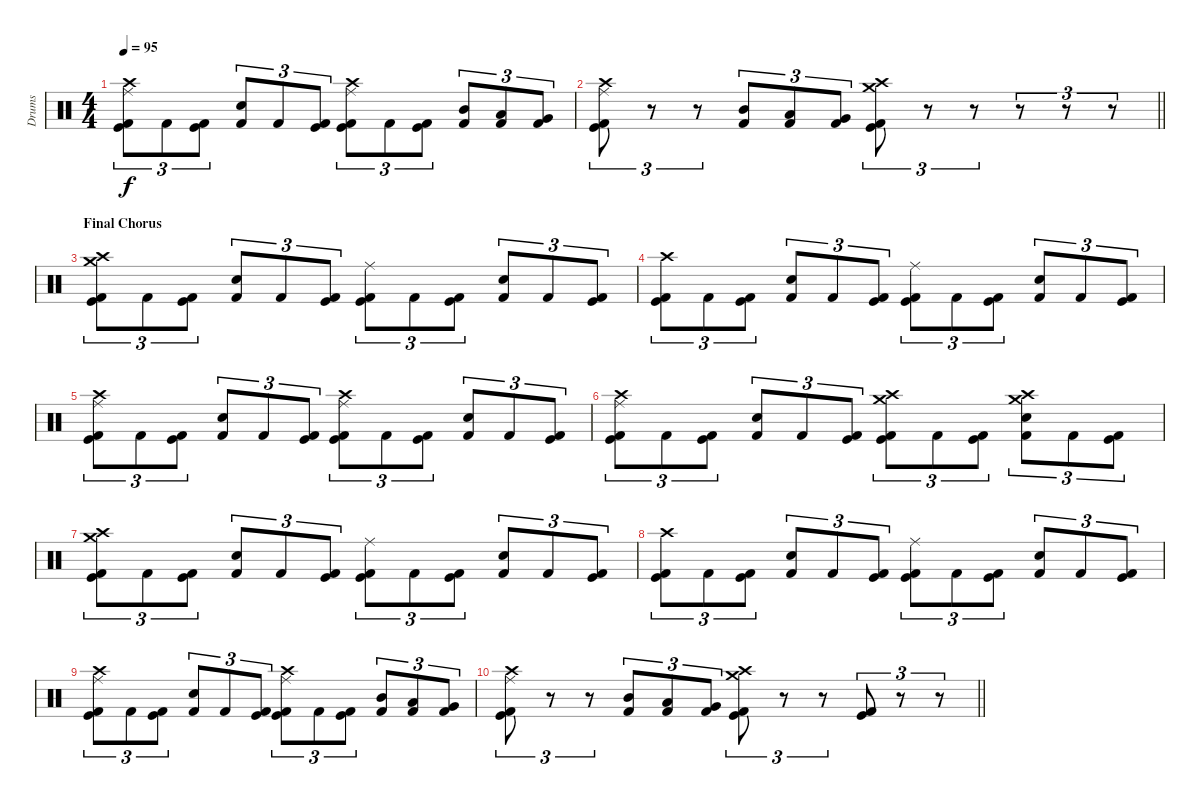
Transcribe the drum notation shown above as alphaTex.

\track ("Drums" "Drums") {instrument percussion}
\staff {score}
\articulation defaults
\ts (4 4)
\tempo 95
\clef neutral
\ks c
("Ride (middle)" "Kick (hit)" "Kick (hit) 2" "Crash high (hit)").8{tu (3 2) dy f} "Kick (hit) 2".8{tu (3 2)} ("Kick (hit)" "Kick (hit) 2").8{tu (3 2)} ("Snare (hit) 2" "Kick (hit) 2").8{tu (3 2)} "Kick (hit) 2".8{tu (3 2)} ("Kick (hit)" "Kick (hit) 2").8{tu (3 2)} ("Ride (middle)" "Kick (hit)" "Kick (hit) 2" "Crash high (hit)").8{tu (3 2)} "Kick (hit) 2".8{tu (3 2)} ("Kick (hit)" "Kick (hit) 2").8{tu (3 2)} ("Mid Tom (hit)" "Kick (hit) 2").8{tu (3 2)} ("Low Tom (hit)" "Kick (hit) 2").8{tu (3 2)} ("Very Low Tom (hit)" "Kick (hit) 2").8{tu (3 2)} |
\barLineRight lightlight
("Ride (middle)" "Kick (hit)" "Kick (hit) 2" "Crash high (hit)").8{tu (3 2)} r.8{tu (3 2)} r.8{tu (3 2)} ("Mid Tom (hit)" "Kick (hit) 2").8{tu (3 2)} ("Low Tom (hit)" "Kick (hit) 2").8{tu (3 2)} ("Very Low Tom (hit)" "Kick (hit) 2").8{tu (3 2)} ("Crash medium (hit)" "Kick (hit)" "Kick (hit) 2" "Crash high (hit)").8{tu (3 2)} r.8{tu (3 2)} r.8{tu (3 2)} r.8{tu (3 2)} r.8{tu (3 2)} r.8{tu (3 2)} |
\section ("" "Final Chorus")
("Crash medium (hit)" "Kick (hit)" "Kick (hit) 2" "Crash high (hit)").8{tu (3 2)} "Kick (hit) 2".8{tu (3 2)} ("Kick (hit)" "Kick (hit) 2").8{tu (3 2)} ("Snare (hit) 2" "Kick (hit) 2").8{tu (3 2)} "Kick (hit) 2".8{tu (3 2)} ("Kick (hit)" "Kick (hit) 2").8{tu (3 2)} ("Ride (middle)" "Kick (hit)" "Kick (hit) 2").8{tu (3 2)} "Kick (hit) 2".8{tu (3 2)} ("Kick (hit)" "Kick (hit) 2").8{tu (3 2)} ("Snare (hit) 2" "Kick (hit) 2").8{tu (3 2)} "Kick (hit) 2".8{tu (3 2)} ("Kick (hit)" "Kick (hit) 2").8{tu (3 2)} |
("Kick (hit)" "Kick (hit) 2" "Crash high (hit)").8{tu (3 2)} "Kick (hit) 2".8{tu (3 2)} ("Kick (hit)" "Kick (hit) 2").8{tu (3 2)} ("Snare (hit) 2" "Kick (hit) 2").8{tu (3 2)} "Kick (hit) 2".8{tu (3 2)} ("Kick (hit)" "Kick (hit) 2").8{tu (3 2)} ("Ride (middle)" "Kick (hit)" "Kick (hit) 2").8{tu (3 2)} "Kick (hit) 2".8{tu (3 2)} ("Kick (hit)" "Kick (hit) 2").8{tu (3 2)} ("Snare (hit) 2" "Kick (hit) 2").8{tu (3 2)} "Kick (hit) 2".8{tu (3 2)} ("Kick (hit)" "Kick (hit) 2").8{tu (3 2)} |
("Ride (middle)" "Kick (hit)" "Kick (hit) 2" "Crash high (hit)").8{tu (3 2)} "Kick (hit) 2".8{tu (3 2)} ("Kick (hit)" "Kick (hit) 2").8{tu (3 2)} ("Snare (hit) 2" "Kick (hit) 2").8{tu (3 2)} "Kick (hit) 2".8{tu (3 2)} ("Kick (hit)" "Kick (hit) 2").8{tu (3 2)} ("Ride (middle)" "Kick (hit)" "Kick (hit) 2" "Crash high (hit)").8{tu (3 2)} "Kick (hit) 2".8{tu (3 2)} ("Kick (hit)" "Kick (hit) 2").8{tu (3 2)} ("Snare (hit) 2" "Kick (hit) 2").8{tu (3 2)} "Kick (hit) 2".8{tu (3 2)} ("Kick (hit)" "Kick (hit) 2").8{tu (3 2)} |
("Ride (middle)" "Kick (hit)" "Kick (hit) 2" "Crash high (hit)").8{tu (3 2)} "Kick (hit) 2".8{tu (3 2)} ("Kick (hit)" "Kick (hit) 2").8{tu (3 2)} ("Snare (hit) 2" "Kick (hit) 2").8{tu (3 2)} "Kick (hit) 2".8{tu (3 2)} ("Kick (hit)" "Kick (hit) 2").8{tu (3 2)} ("Crash medium (hit)" "Kick (hit)" "Kick (hit) 2" "Crash high (hit)").8{tu (3 2)} "Kick (hit) 2".8{tu (3 2)} ("Kick (hit)" "Kick (hit) 2").8{tu (3 2)} ("Crash medium (hit)" "Snare (hit) 2" "Kick (hit) 2" "Crash high (hit)").8{tu (3 2)} "Kick (hit) 2".8{tu (3 2)} ("Kick (hit)" "Kick (hit) 2").8{tu (3 2)} |
("Crash medium (hit)" "Kick (hit)" "Kick (hit) 2" "Crash high (hit)").8{tu (3 2)} "Kick (hit) 2".8{tu (3 2)} ("Kick (hit)" "Kick (hit) 2").8{tu (3 2)} ("Snare (hit) 2" "Kick (hit) 2").8{tu (3 2)} "Kick (hit) 2".8{tu (3 2)} ("Kick (hit)" "Kick (hit) 2").8{tu (3 2)} ("Ride (middle)" "Kick (hit)" "Kick (hit) 2").8{tu (3 2)} "Kick (hit) 2".8{tu (3 2)} ("Kick (hit)" "Kick (hit) 2").8{tu (3 2)} ("Snare (hit) 2" "Kick (hit) 2").8{tu (3 2)} "Kick (hit) 2".8{tu (3 2)} ("Kick (hit)" "Kick (hit) 2").8{tu (3 2)} |
("Kick (hit)" "Kick (hit) 2" "Crash high (hit)").8{tu (3 2)} "Kick (hit) 2".8{tu (3 2)} ("Kick (hit)" "Kick (hit) 2").8{tu (3 2)} ("Snare (hit) 2" "Kick (hit) 2").8{tu (3 2)} "Kick (hit) 2".8{tu (3 2)} ("Kick (hit)" "Kick (hit) 2").8{tu (3 2)} ("Ride (middle)" "Kick (hit)" "Kick (hit) 2").8{tu (3 2)} "Kick (hit) 2".8{tu (3 2)} ("Kick (hit)" "Kick (hit) 2").8{tu (3 2)} ("Snare (hit) 2" "Kick (hit) 2").8{tu (3 2)} "Kick (hit) 2".8{tu (3 2)} ("Kick (hit)" "Kick (hit) 2").8{tu (3 2)} |
("Ride (middle)" "Kick (hit)" "Kick (hit) 2" "Crash high (hit)").8{tu (3 2)} "Kick (hit) 2".8{tu (3 2)} ("Kick (hit)" "Kick (hit) 2").8{tu (3 2)} ("Snare (hit) 2" "Kick (hit) 2").8{tu (3 2)} "Kick (hit) 2".8{tu (3 2)} ("Kick (hit)" "Kick (hit) 2").8{tu (3 2)} ("Ride (middle)" "Kick (hit)" "Kick (hit) 2" "Crash high (hit)").8{tu (3 2)} "Kick (hit) 2".8{tu (3 2)} ("Kick (hit)" "Kick (hit) 2").8{tu (3 2)} ("Mid Tom (hit)" "Kick (hit) 2").8{tu (3 2)} ("Low Tom (hit)" "Kick (hit) 2").8{tu (3 2)} ("Very Low Tom (hit)" "Kick (hit) 2").8{tu (3 2)} |
\barLineRight lightlight
("Ride (middle)" "Kick (hit)" "Kick (hit) 2" "Crash high (hit)").8{tu (3 2)} r.8{tu (3 2)} r.8{tu (3 2)} ("Mid Tom (hit)" "Kick (hit) 2").8{tu (3 2)} ("Low Tom (hit)" "Kick (hit) 2").8{tu (3 2)} ("Very Low Tom (hit)" "Kick (hit) 2").8{tu (3 2)} ("Crash medium (hit)" "Kick (hit)" "Kick (hit) 2" "Crash high (hit)").8{tu (3 2)} r.8{tu (3 2)} r.8{tu (3 2)} ("Kick (hit)" "Kick (hit) 2").8{tu (3 2)} r.8{tu (3 2)} r.8{tu (3 2)}
